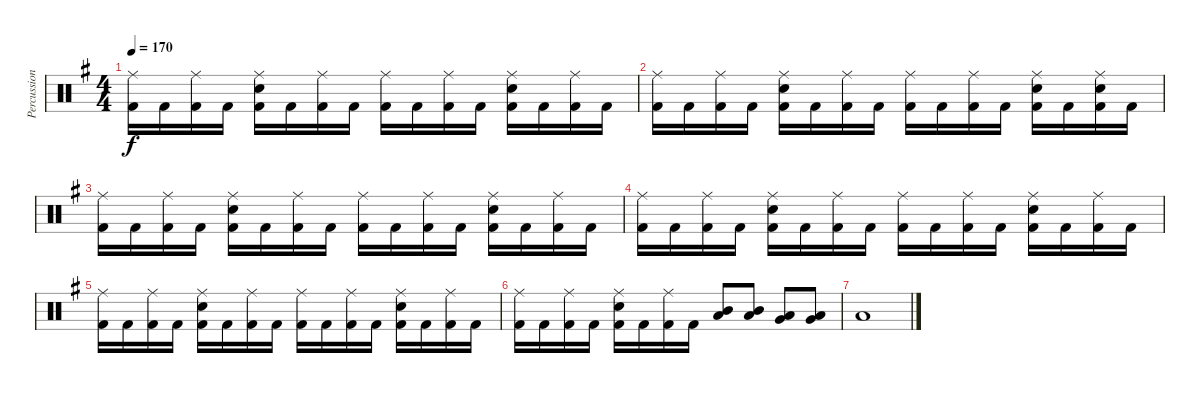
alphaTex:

\track ("Percussion" "Percussion") {instrument percussion}
\staff {score}
\articulation defaults
\ts (4 4)
\tempo 170
\clef neutral
\ks g
("Ride (middle)" "Kick (hit) 2").16{dy f} "Kick (hit) 2".16 ("Ride (middle)" "Kick (hit) 2").16 "Kick (hit) 2".16 ("Ride (middle)" "Snare (hit) 2" "Kick (hit) 2").16 "Kick (hit) 2".16 ("Ride (middle)" "Kick (hit) 2").16 "Kick (hit) 2".16 ("Ride (middle)" "Kick (hit) 2").16 "Kick (hit) 2".16 ("Ride (middle)" "Kick (hit) 2").16 "Kick (hit) 2".16 ("Ride (middle)" "Snare (hit) 2" "Kick (hit) 2").16 "Kick (hit) 2".16 ("Ride (middle)" "Kick (hit) 2").16 "Kick (hit) 2".16 |
("Ride (middle)" "Kick (hit) 2").16 "Kick (hit) 2".16 ("Ride (middle)" "Kick (hit) 2").16 "Kick (hit) 2".16 ("Ride (middle)" "Snare (hit) 2" "Kick (hit) 2").16 "Kick (hit) 2".16 ("Ride (middle)" "Kick (hit) 2").16 "Kick (hit) 2".16 ("Ride (middle)" "Kick (hit) 2").16 "Kick (hit) 2".16 ("Ride (middle)" "Kick (hit) 2").16 "Kick (hit) 2".16 ("Ride (middle)" "Snare (hit) 2" "Kick (hit) 2").16 "Kick (hit) 2".16 ("Ride (middle)" "Snare (hit) 2" "Kick (hit) 2").16 "Kick (hit) 2".16 |
("Ride (middle)" "Kick (hit) 2").16 "Kick (hit) 2".16 ("Ride (middle)" "Kick (hit) 2").16 "Kick (hit) 2".16 ("Ride (middle)" "Snare (hit) 2" "Kick (hit) 2").16 "Kick (hit) 2".16 ("Ride (middle)" "Kick (hit) 2").16 "Kick (hit) 2".16 ("Ride (middle)" "Kick (hit) 2").16 "Kick (hit) 2".16 ("Ride (middle)" "Kick (hit) 2").16 "Kick (hit) 2".16 ("Ride (middle)" "Snare (hit) 2" "Kick (hit) 2").16 "Kick (hit) 2".16 ("Ride (middle)" "Kick (hit) 2").16 "Kick (hit) 2".16 |
("Ride (middle)" "Kick (hit) 2").16 "Kick (hit) 2".16 ("Ride (middle)" "Kick (hit) 2").16 "Kick (hit) 2".16 ("Ride (middle)" "Snare (hit) 2" "Kick (hit) 2").16 "Kick (hit) 2".16 ("Ride (middle)" "Kick (hit) 2").16 "Kick (hit) 2".16 ("Ride (middle)" "Kick (hit) 2").16 "Kick (hit) 2".16 ("Ride (middle)" "Kick (hit) 2").16 "Kick (hit) 2".16 ("Ride (middle)" "Snare (hit) 2" "Kick (hit) 2").16 "Kick (hit) 2".16 ("Ride (middle)" "Kick (hit) 2").16 "Kick (hit) 2".16 |
("Ride (middle)" "Kick (hit) 2").16 "Kick (hit) 2".16 ("Ride (middle)" "Kick (hit) 2").16 "Kick (hit) 2".16 ("Ride (middle)" "Snare (hit) 2" "Kick (hit) 2").16 "Kick (hit) 2".16 ("Ride (middle)" "Kick (hit) 2").16 "Kick (hit) 2".16 ("Ride (middle)" "Kick (hit) 2").16 "Kick (hit) 2".16 ("Ride (middle)" "Kick (hit) 2").16 "Kick (hit) 2".16 ("Ride (middle)" "Snare (hit) 2" "Kick (hit) 2").16 "Kick (hit) 2".16 ("Ride (middle)" "Kick (hit) 2").16 "Kick (hit) 2".16 |
("Ride (middle)" "Kick (hit) 2").16 "Kick (hit) 2".16 ("Ride (middle)" "Kick (hit) 2").16 "Kick (hit) 2".16 ("Ride (middle)" "Snare (hit) 2" "Kick (hit) 2").16 "Kick (hit) 2".16 ("Ride (middle)" "Kick (hit) 2").16 "Kick (hit) 2".16 ("Mid Tom (hit)" "Low Tom (hit)").8 ("Mid Tom (hit)" "Low Tom (hit)").8 ("Low Tom (hit)" "Very Low Tom (hit)").8 ("Low Tom (hit)" "Very Low Tom (hit)").8 |
"Low Floor Tom (hit)".1
